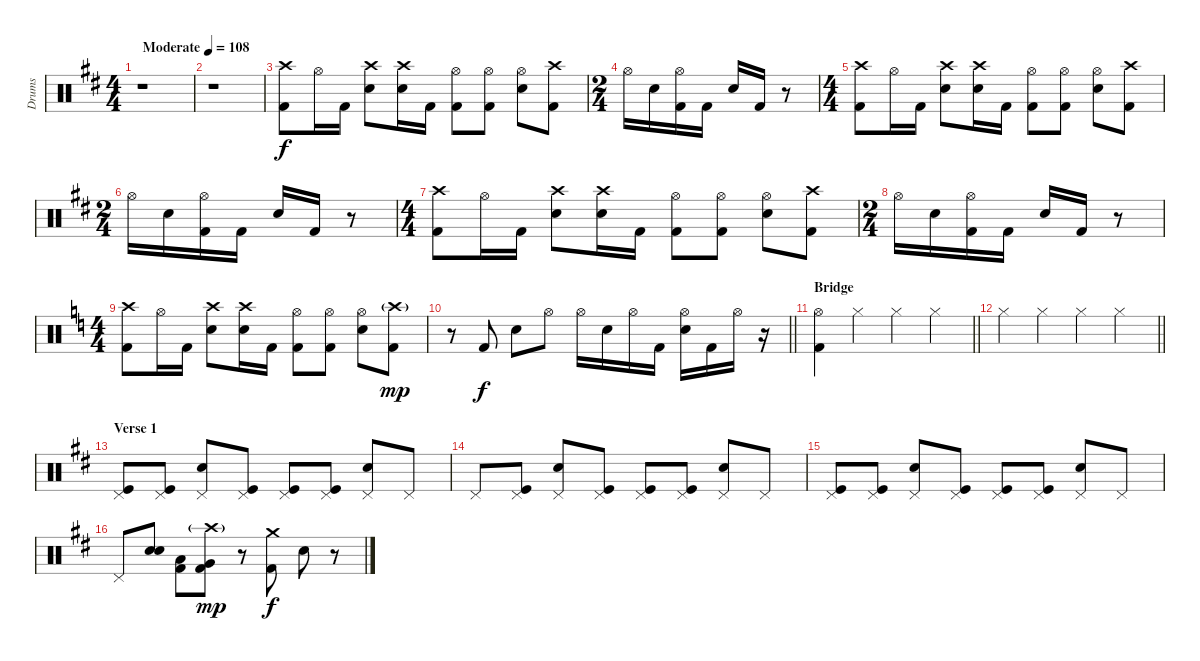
\track ("Drums" "Drums") {instrument percussion}
\staff {score}
\articulation defaults
\ts (4 4)
\tempo (108 "Moderate")
\clef neutral
\ks d
r.1{dy f} |
r.1 |
("Crash high (hit)" "Kick (hit) 2").8 "Hi-Hat (open)".16 "Kick (hit) 2".16 ("Crash high (hit)" "Snare (hit) 2").8 ("Crash high (hit)" "Snare (hit) 2").16 "Kick (hit) 2".16 ("Hi-Hat (open)" "Kick (hit) 2").8 ("Hi-Hat (open)" "Kick (hit) 2").8 ("Hi-Hat (open)" "Snare (hit) 2").8 ("Crash high (hit)" "Kick (hit) 2").8 |
\ts (2 4)
"Hi-Hat (open)".16 "Snare (hit) 2".16 ("Hi-Hat (open)" "Kick (hit) 2").16 "Kick (hit) 2".16 "Snare (hit) 2".16 "Kick (hit) 2".16 r.8 |
\ts (4 4)
("Crash high (hit)" "Kick (hit) 2").8 "Hi-Hat (open)".16 "Kick (hit) 2".16 ("Crash high (hit)" "Snare (hit) 2").8 ("Crash high (hit)" "Snare (hit) 2").16 "Kick (hit) 2".16 ("Hi-Hat (open)" "Kick (hit) 2").8 ("Hi-Hat (open)" "Kick (hit) 2").8 ("Hi-Hat (open)" "Snare (hit) 2").8 ("Crash high (hit)" "Kick (hit) 2").8 |
\ts (2 4)
"Hi-Hat (open)".16 "Snare (hit) 2".16 ("Hi-Hat (open)" "Kick (hit) 2").16 "Kick (hit) 2".16 "Snare (hit) 2".16 "Kick (hit) 2".16 r.8 |
\ts (4 4)
("Crash high (hit)" "Kick (hit) 2").8 "Hi-Hat (open)".16 "Kick (hit) 2".16 ("Crash high (hit)" "Snare (hit) 2").8 ("Crash high (hit)" "Snare (hit) 2").16 "Kick (hit) 2".16 ("Hi-Hat (open)" "Kick (hit) 2").8 ("Hi-Hat (open)" "Kick (hit) 2").8 ("Hi-Hat (open)" "Snare (hit) 2").8 ("Crash high (hit)" "Kick (hit) 2").8 |
\ts (2 4)
"Hi-Hat (open)".16 "Snare (hit) 2".16 ("Hi-Hat (open)" "Kick (hit) 2").16 "Kick (hit) 2".16 "Snare (hit) 2".16 "Kick (hit) 2".16 r.8 |
\ts (4 4)
\ks c
("Crash high (hit)" "Kick (hit) 2").8 "Hi-Hat (open)".16 "Kick (hit) 2".16 ("Crash high (hit)" "Snare (hit) 2").8 ("Crash high (hit)" "Snare (hit) 2").16 "Kick (hit) 2".16 ("Hi-Hat (open)" "Kick (hit) 2").8 ("Hi-Hat (open)" "Kick (hit) 2").8 ("Hi-Hat (open)" "Snare (hit) 2").8 ("Crash high (hit)"{g} "Kick (hit) 2").8{dy mp} |
\barLineRight lightlight
r.8 "Kick (hit) 2".8{dy f} "Snare (hit) 2".8 "Hi-Hat (open)".8 "Hi-Hat (open)".16 "Snare (hit) 2".16 "Hi-Hat (open)".16 "Kick (hit) 2".16 ("Hi-Hat (open)" "Snare (hit) 2").16 "Kick (hit) 2".16 "Hi-Hat (open)".16 r.16 |
\section ("" "Bridge")
\barLineRight lightlight
("Hi-Hat (open)" "Kick (hit) 2").4 "Hi-Hat (closed)".4 "Hi-Hat (closed)".4 "Hi-Hat (closed)".4 |
\barLineRight lightlight "Hi-Hat (closed)".4 "Hi-Hat (closed)".4 "Hi-Hat (closed)".4 "Hi-Hat (closed)".4
|
\section ("" "Verse 1")
\ks d
("Pedal Hi-Hat (hit)" "Kick (hit)").8 ("Pedal Hi-Hat (hit)" "Kick (hit)").8 ("Pedal Hi-Hat (hit)" "Electric Snare (hit)").8 ("Pedal Hi-Hat (hit)" "Kick (hit)").8 ("Pedal Hi-Hat (hit)" "Kick (hit)").8 ("Pedal Hi-Hat (hit)" "Kick (hit)").8 ("Pedal Hi-Hat (hit)" "Electric Snare (hit)").8 "Pedal Hi-Hat (hit)".8 |
"Pedal Hi-Hat (hit)".8 ("Pedal Hi-Hat (hit)" "Kick (hit)").8 ("Pedal Hi-Hat (hit)" "Electric Snare (hit)").8 ("Pedal Hi-Hat (hit)" "Kick (hit)").8 ("Pedal Hi-Hat (hit)" "Kick (hit)").8 ("Pedal Hi-Hat (hit)" "Kick (hit)").8 ("Pedal Hi-Hat (hit)" "Electric Snare (hit)").8 "Pedal Hi-Hat (hit)".8 |
("Pedal Hi-Hat (hit)" "Kick (hit)").8 ("Pedal Hi-Hat (hit)" "Kick (hit)").8 ("Pedal Hi-Hat (hit)" "Electric Snare (hit)").8 ("Pedal Hi-Hat (hit)" "Kick (hit)").8 ("Pedal Hi-Hat (hit)" "Kick (hit)").8 ("Pedal Hi-Hat (hit)" "Kick (hit)").8 ("Pedal Hi-Hat (hit)" "Electric Snare (hit)").8 "Pedal Hi-Hat (hit)".8 |
"Pedal Hi-Hat (hit)".8 ("Snare (hit) 2" "Snare (hit) 2").8 ("Low Tom (hit)" "Kick (hit) 2").8 ("Crash high (hit)"{g} "Very Low Tom (hit)" "Kick (hit) 2").8{dy mp} r.8 ("Crash medium (hit)" "Kick (hit) 2").8{dy f} "Snare (hit) 2".8 r.8
